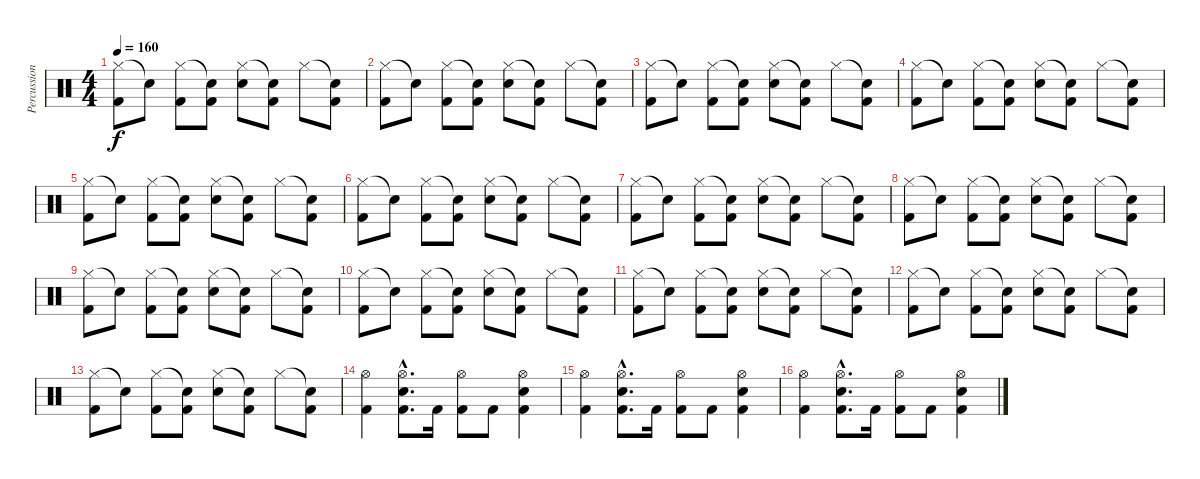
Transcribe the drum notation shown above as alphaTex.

\track ("Percussion" "Percussion") {instrument percussion}
\staff {score}
\articulation defaults
\ts (4 4)
\tempo 160
\clef neutral
\ks c
("Hi-Hat (closed)" "Kick (hit) 2").8{dy f} "Snare (hit)"{t}.8 ("Hi-Hat (closed)" "Kick (hit) 2").8 ("Snare (hit)"{t} "Kick (hit) 2").8 ("Hi-Hat (closed)" "Electric Snare (hit)").8 ("Snare (hit)"{t} "Kick (hit) 2").8 "Hi-Hat (closed)".8 ("Snare (hit)"{t} "Kick (hit) 2").8 |
("Hi-Hat (closed)" "Kick (hit) 2").8 "Snare (hit)"{t}.8 ("Hi-Hat (closed)" "Kick (hit) 2").8 ("Snare (hit)"{t} "Kick (hit) 2").8 ("Hi-Hat (closed)" "Electric Snare (hit)").8 ("Snare (hit)"{t} "Kick (hit) 2").8 "Hi-Hat (closed)".8 ("Snare (hit)"{t} "Kick (hit) 2").8 |
("Hi-Hat (closed)" "Kick (hit) 2").8 "Snare (hit)"{t}.8 ("Hi-Hat (closed)" "Kick (hit) 2").8 ("Snare (hit)"{t} "Kick (hit) 2").8 ("Hi-Hat (closed)" "Electric Snare (hit)").8 ("Snare (hit)"{t} "Kick (hit) 2").8 "Hi-Hat (closed)".8 ("Snare (hit)"{t} "Kick (hit) 2").8 |
("Hi-Hat (closed)" "Kick (hit) 2").8 "Snare (hit)"{t}.8 ("Hi-Hat (closed)" "Kick (hit) 2").8 ("Snare (hit)"{t} "Kick (hit) 2").8 ("Hi-Hat (closed)" "Electric Snare (hit)").8 ("Snare (hit)"{t} "Kick (hit) 2").8 "Hi-Hat (closed)".8 ("Snare (hit)"{t} "Kick (hit) 2").8 |
("Hi-Hat (closed)" "Kick (hit) 2").8 "Snare (hit)"{t}.8 ("Hi-Hat (closed)" "Kick (hit) 2").8 ("Snare (hit)"{t} "Kick (hit) 2").8 ("Hi-Hat (closed)" "Electric Snare (hit)").8 ("Snare (hit)"{t} "Kick (hit) 2").8 "Hi-Hat (closed)".8 ("Snare (hit)"{t} "Kick (hit) 2").8 |
("Hi-Hat (closed)" "Kick (hit) 2").8 "Snare (hit)"{t}.8 ("Hi-Hat (closed)" "Kick (hit) 2").8 ("Snare (hit)"{t} "Kick (hit) 2").8 ("Hi-Hat (closed)" "Electric Snare (hit)").8 ("Snare (hit)"{t} "Kick (hit) 2").8 "Hi-Hat (closed)".8 ("Snare (hit)"{t} "Kick (hit) 2").8 |
("Hi-Hat (closed)" "Kick (hit) 2").8 "Snare (hit)"{t}.8 ("Hi-Hat (closed)" "Kick (hit) 2").8 ("Snare (hit)"{t} "Kick (hit) 2").8 ("Hi-Hat (closed)" "Electric Snare (hit)").8 ("Snare (hit)"{t} "Kick (hit) 2").8 "Hi-Hat (closed)".8 ("Snare (hit)"{t} "Kick (hit) 2").8 |
("Hi-Hat (closed)" "Kick (hit) 2").8 "Snare (hit)"{t}.8 ("Hi-Hat (closed)" "Kick (hit) 2").8 ("Snare (hit)"{t} "Kick (hit) 2").8 ("Hi-Hat (closed)" "Electric Snare (hit)").8 ("Snare (hit)"{t} "Kick (hit) 2").8 "Hi-Hat (closed)".8 ("Snare (hit)"{t} "Kick (hit) 2").8 |
("Hi-Hat (closed)" "Kick (hit) 2").8 "Snare (hit)"{t}.8 ("Hi-Hat (closed)" "Kick (hit) 2").8 ("Snare (hit)"{t} "Kick (hit) 2").8 ("Hi-Hat (closed)" "Electric Snare (hit)").8 ("Snare (hit)"{t} "Kick (hit) 2").8 "Hi-Hat (closed)".8 ("Snare (hit)"{t} "Kick (hit) 2").8 |
("Hi-Hat (closed)" "Kick (hit) 2").8 "Snare (hit)"{t}.8 ("Hi-Hat (closed)" "Kick (hit) 2").8 ("Snare (hit)"{t} "Kick (hit) 2").8 ("Hi-Hat (closed)" "Electric Snare (hit)").8 ("Snare (hit)"{t} "Kick (hit) 2").8 "Hi-Hat (closed)".8 ("Snare (hit)"{t} "Kick (hit) 2").8 |
("Hi-Hat (closed)" "Kick (hit) 2").8 "Snare (hit)"{t}.8 ("Hi-Hat (closed)" "Kick (hit) 2").8 ("Snare (hit)"{t} "Kick (hit) 2").8 ("Hi-Hat (closed)" "Electric Snare (hit)").8 ("Snare (hit)"{t} "Kick (hit) 2").8 "Hi-Hat (closed)".8 ("Snare (hit)"{t} "Kick (hit) 2").8 |
("Hi-Hat (closed)" "Kick (hit) 2").8 "Snare (hit)"{t}.8 ("Hi-Hat (closed)" "Kick (hit) 2").8 ("Snare (hit)"{t} "Kick (hit) 2").8 ("Hi-Hat (closed)" "Electric Snare (hit)").8 ("Snare (hit)"{t} "Kick (hit) 2").8 "Hi-Hat (closed)".8 ("Snare (hit)"{t} "Kick (hit) 2").8 |
("Hi-Hat (closed)" "Kick (hit) 2").8 "Snare (hit)"{t}.8 ("Hi-Hat (closed)" "Kick (hit) 2").8 ("Snare (hit)"{t} "Kick (hit) 2").8 ("Hi-Hat (closed)" "Electric Snare (hit)").8 ("Snare (hit)"{t} "Kick (hit) 2").8 "Hi-Hat (closed)".8 ("Snare (hit)"{t} "Kick (hit) 2").8 |
("Hi-Hat (open)" "Kick (hit) 2").4 ("Hi-Hat (open)"{hac} "Electric Snare (hit)"{hac} "Kick (hit) 2"{hac}).8{d} "Kick (hit) 2".16 ("Hi-Hat (open)" "Kick (hit) 2").8 "Kick (hit) 2".8 ("Hi-Hat (open)" "Electric Snare (hit)" "Kick (hit) 2").4 |
("Hi-Hat (open)" "Kick (hit) 2").4 ("Hi-Hat (open)"{hac} "Electric Snare (hit)"{hac} "Kick (hit) 2"{hac}).8{d} "Kick (hit) 2".16 ("Hi-Hat (open)" "Kick (hit) 2").8 "Kick (hit) 2".8 ("Hi-Hat (open)" "Electric Snare (hit)" "Kick (hit) 2").4 |
("Hi-Hat (open)" "Kick (hit) 2").4 ("Hi-Hat (open)"{hac} "Electric Snare (hit)"{hac} "Kick (hit) 2"{hac}).8{d} "Kick (hit) 2".16 ("Hi-Hat (open)" "Kick (hit) 2").8 "Kick (hit) 2".8 ("Hi-Hat (open)" "Electric Snare (hit)" "Kick (hit) 2").4
